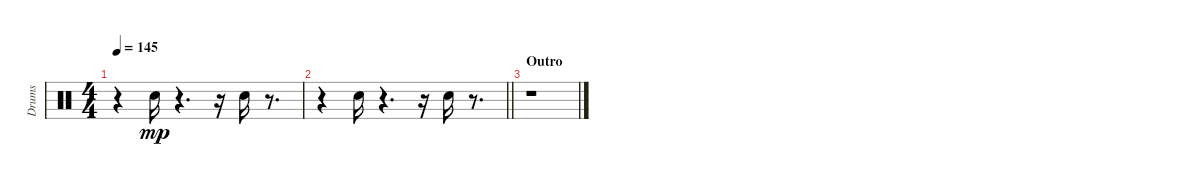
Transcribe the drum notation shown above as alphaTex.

\track ("Drums" "Drums") {instrument percussion}
\staff {score}
\articulation defaults
\ts (4 4)
\tempo 145
\clef neutral
\ks c
r.4{dy mp} "Snare (hit) 2".16 r.4{d} r.16 "Snare (hit) 2".16 r.8{d} |
\barLineRight lightlight
r.4 "Snare (hit) 2".16 r.4{d} r.16 "Snare (hit) 2".16 r.8{d} |
\section ("" "Outro")
r.1
